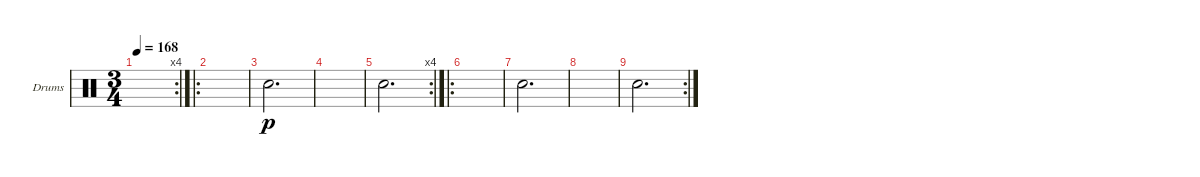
\defaultSystemsLayout 4
\bracketExtendMode groupsimilarinstruments
\firstSystemTrackNameOrientation horizontal
\otherSystemsTrackNameOrientation horizontal
\track ("Drumkit" "Drums") {instrument percussion}
\staff {score}
\articulation defaults
\rc 4
\ts (3 4)
\tempo 168
\clef neutral
\ks c
|
\ro
|
"Snare (hit) 2".2{d dy p} |
|
\rc 4 "Snare (hit) 2".2{d}
|
\ro
|
"Snare (hit) 2".2{d} |
|
\rc 2 "Snare (hit) 2".2{d}
